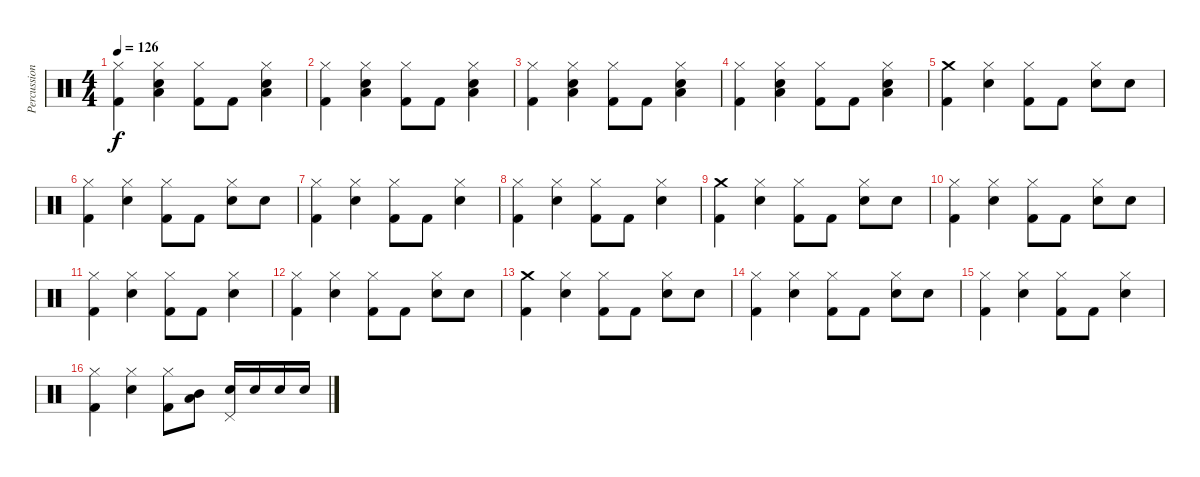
\track ("Percussion" "Percussion") {instrument percussion}
\staff {score}
\articulation defaults
\ts (4 4)
\tempo 126
\clef neutral
\ks c
("Hi-Hat (closed)" "Kick (hit) 2").4{dy f} ("Hi-Hat (closed)" "Low Floor Tom (hit)" "Metronome (bell)").4 ("Hi-Hat (closed)" "Kick (hit) 2").8 "Kick (hit) 2".8 ("Hi-Hat (closed)" "Low Floor Tom (hit)" "Metronome (bell)").4 |
("Hi-Hat (closed)" "Kick (hit) 2").4 ("Hi-Hat (closed)" "Low Floor Tom (hit)" "Metronome (bell)").4 ("Hi-Hat (closed)" "Kick (hit) 2").8 "Kick (hit) 2".8 ("Hi-Hat (closed)" "Low Floor Tom (hit)" "Metronome (bell)").4 |
("Hi-Hat (closed)" "Kick (hit) 2").4 ("Hi-Hat (closed)" "Low Floor Tom (hit)" "Metronome (bell)").4 ("Hi-Hat (closed)" "Kick (hit) 2").8 "Kick (hit) 2".8 ("Hi-Hat (closed)" "Low Floor Tom (hit)" "Metronome (bell)").4 |
("Hi-Hat (closed)" "Kick (hit) 2").4 ("Hi-Hat (closed)" "Low Floor Tom (hit)" "Metronome (bell)").4 ("Hi-Hat (closed)" "Kick (hit) 2").8 "Kick (hit) 2".8 ("Hi-Hat (closed)" "Low Floor Tom (hit)" "Metronome (bell)").4 |
("Crash medium (hit)" "Kick (hit) 2").4 ("Hi-Hat (closed)" "Metronome (bell)").4 ("Hi-Hat (closed)" "Kick (hit) 2").8 "Kick (hit) 2".8 ("Hi-Hat (closed)" "Metronome (bell)").8 "Metronome (bell)".8 |
("Hi-Hat (closed)" "Kick (hit) 2").4 ("Hi-Hat (closed)" "Metronome (bell)").4 ("Hi-Hat (closed)" "Kick (hit) 2").8 "Kick (hit) 2".8 ("Hi-Hat (closed)" "Metronome (bell)").8 "Metronome (bell)".8 |
("Hi-Hat (closed)" "Kick (hit) 2").4 ("Hi-Hat (closed)" "Metronome (bell)").4 ("Hi-Hat (closed)" "Kick (hit) 2").8 "Kick (hit) 2".8 ("Hi-Hat (closed)" "Metronome (bell)").4 |
("Hi-Hat (closed)" "Kick (hit) 2").4 ("Hi-Hat (closed)" "Metronome (bell)").4 ("Hi-Hat (closed)" "Kick (hit) 2").8 "Kick (hit) 2".8 ("Hi-Hat (closed)" "Metronome (bell)").4 |
("Crash medium (hit)" "Kick (hit) 2").4 ("Hi-Hat (closed)" "Metronome (bell)").4 ("Hi-Hat (closed)" "Kick (hit) 2").8 "Kick (hit) 2".8 ("Hi-Hat (closed)" "Metronome (bell)").8 "Metronome (bell)".8 |
("Hi-Hat (closed)" "Kick (hit) 2").4 ("Hi-Hat (closed)" "Metronome (bell)").4 ("Hi-Hat (closed)" "Kick (hit) 2").8 "Kick (hit) 2".8 ("Hi-Hat (closed)" "Metronome (bell)").8 "Metronome (bell)".8 |
("Hi-Hat (closed)" "Kick (hit) 2").4 ("Hi-Hat (closed)" "Metronome (bell)").4 ("Hi-Hat (closed)" "Kick (hit) 2").8 "Kick (hit) 2".8 ("Hi-Hat (closed)" "Metronome (bell)").4 |
("Hi-Hat (closed)" "Kick (hit) 2").4 ("Hi-Hat (closed)" "Metronome (bell)").4 ("Hi-Hat (closed)" "Kick (hit) 2").8 "Kick (hit) 2".8 ("Hi-Hat (closed)" "Metronome (bell)").8 "Metronome (bell)".8 |
("Crash medium (hit)" "Kick (hit) 2").4 ("Hi-Hat (closed)" "Metronome (bell)").4 ("Hi-Hat (closed)" "Kick (hit) 2").8 "Kick (hit) 2".8 ("Hi-Hat (closed)" "Metronome (bell)").8 "Metronome (bell)".8 |
("Hi-Hat (closed)" "Kick (hit) 2").4 ("Hi-Hat (closed)" "Metronome (bell)").4 ("Hi-Hat (closed)" "Kick (hit) 2").8 "Kick (hit) 2".8 ("Hi-Hat (closed)" "Metronome (bell)").8 "Metronome (bell)".8 |
("Hi-Hat (closed)" "Kick (hit) 2").4 ("Hi-Hat (closed)" "Metronome (bell)").4 ("Hi-Hat (closed)" "Kick (hit) 2").8 "Kick (hit) 2".8 ("Hi-Hat (closed)" "Metronome (bell)").4 |
("Hi-Hat (closed)" "Kick (hit) 2").4 ("Hi-Hat (closed)" "Metronome (bell)").4 ("Hi-Hat (closed)" "Kick (hit) 2").8 ("Mid Tom (hit)" "Low Tom (hit)").8 ("Pedal Hi-Hat (hit)" "Metronome (bell)").16 "Metronome (bell)".16 "Metronome (bell)".16 "Metronome (bell)".16
